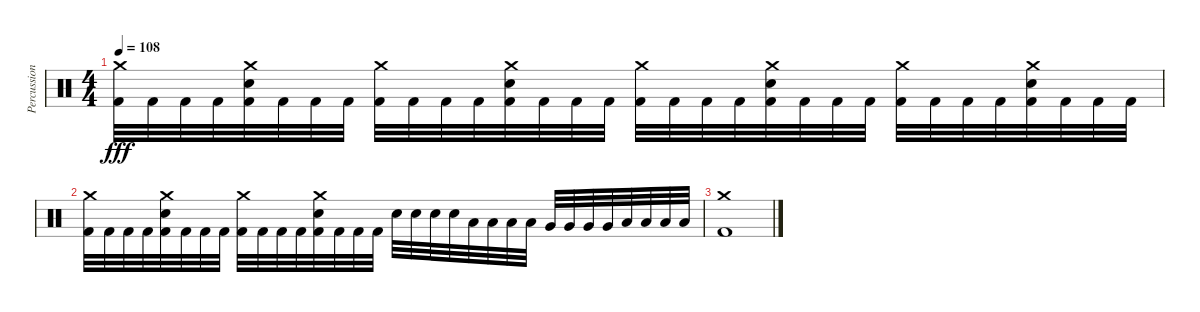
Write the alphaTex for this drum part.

\track ("Percussion" "Percussion") {instrument percussion}
\staff {score}
\articulation defaults
\ts (4 4)
\tempo 108
\clef neutral
\ks c
("Crash medium (hit)" "Kick (hit) 2").32{dy fff} "Kick (hit) 2".32 "Kick (hit) 2".32 "Kick (hit) 2".32 ("Crash medium (hit)" "Electric Snare (hit)" "Kick (hit) 2").32 "Kick (hit) 2".32 "Kick (hit) 2".32 "Kick (hit) 2".32 ("Crash medium (hit)" "Kick (hit) 2").32 "Kick (hit) 2".32 "Kick (hit) 2".32 "Kick (hit) 2".32 ("Crash medium (hit)" "Electric Snare (hit)" "Kick (hit) 2").32 "Kick (hit) 2".32 "Kick (hit) 2".32 "Kick (hit) 2".32 ("Crash medium (hit)" "Kick (hit) 2").32 "Kick (hit) 2".32 "Kick (hit) 2".32 "Kick (hit) 2".32 ("Crash medium (hit)" "Electric Snare (hit)" "Kick (hit) 2").32 "Kick (hit) 2".32 "Kick (hit) 2".32 "Kick (hit) 2".32 ("Crash medium (hit)" "Kick (hit) 2").32 "Kick (hit) 2".32 "Kick (hit) 2".32 "Kick (hit) 2".32 ("Crash medium (hit)" "Electric Snare (hit)" "Kick (hit) 2").32 "Kick (hit) 2".32 "Kick (hit) 2".32 "Kick (hit) 2".32 |
("Crash medium (hit)" "Kick (hit) 2").32 "Kick (hit) 2".32 "Kick (hit) 2".32 "Kick (hit) 2".32 ("Crash medium (hit)" "Electric Snare (hit)" "Kick (hit) 2").32 "Kick (hit) 2".32 "Kick (hit) 2".32 "Kick (hit) 2".32 ("Crash medium (hit)" "Kick (hit) 2").32 "Kick (hit) 2".32 "Kick (hit) 2".32 "Kick (hit) 2".32 ("Crash medium (hit)" "Electric Snare (hit)" "Kick (hit) 2").32 "Kick (hit) 2".32 "Kick (hit) 2".32 "Kick (hit) 2".32 "Electric Snare (hit)".32 "Electric Snare (hit)".32 "Electric Snare (hit)".32 "Electric Snare (hit)".32 "Low Tom (hit)".32 "Low Tom (hit)".32 "Low Tom (hit)".32 "Low Tom (hit)".32 "Very Low Tom (hit)".32 "Very Low Tom (hit)".32 "Very Low Tom (hit)".32 "Very Low Tom (hit)".32 "Low Floor Tom (hit)".32 "Low Floor Tom (hit)".32 "Low Floor Tom (hit)".32 "Low Floor Tom (hit)".32 |
("Crash medium (hit)" "Kick (hit) 2").1
